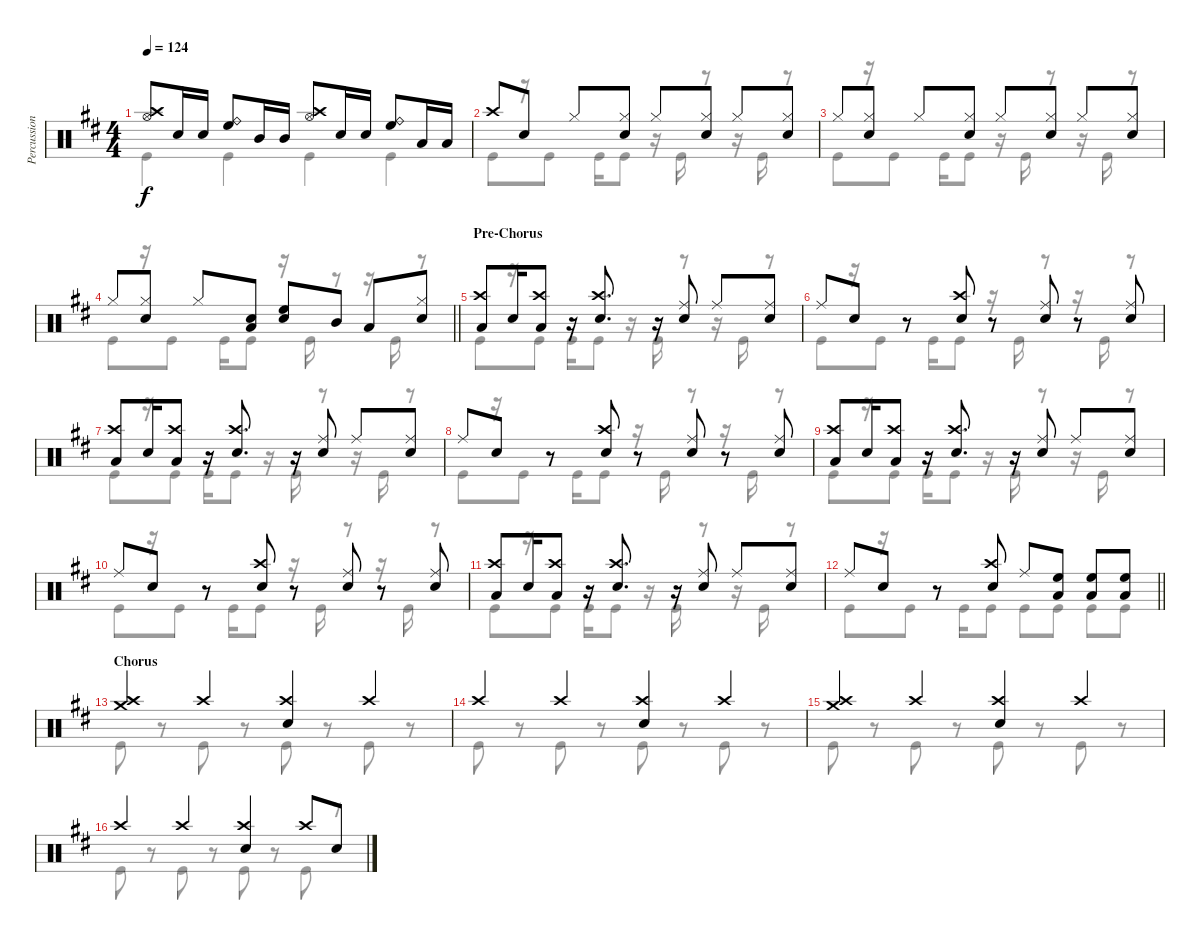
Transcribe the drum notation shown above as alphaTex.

\track ("Percussion" "Percussion") {instrument percussion}
\staff {score}
\articulation defaults
\voice
\ts (4 4)
\tempo 124
\clef neutral
\ks d
("Crash high (hit)" "Hi-Hat (open)").8{dy f} "Snare (hit) 2".16 "Snare (hit) 2".16 ("Ride (bell)" "High Floor Tom (hit)").8 "Mid Tom (hit)".16 "Mid Tom (hit)".16 ("Crash high (hit)" "Hi-Hat (open)").8 "Snare (hit) 2".16 "Snare (hit) 2".16 ("Ride (bell)" "High Floor Tom (hit)").8 "Low Tom (hit)".16 "Low Tom (hit)".16 |
"Crash high (hit)".8 "Snare (hit) 2".8 "Hi-Hat (closed)".8 ("Hi-Hat (closed)" "Snare (hit) 2").8 "Hi-Hat (closed)".8 ("Hi-Hat (closed)" "Snare (hit) 2").8 "Hi-Hat (closed)".8 ("Hi-Hat (closed)" "Snare (hit) 2").8 |
"Hi-Hat (closed)".8 ("Hi-Hat (closed)" "Snare (hit) 2").8 "Hi-Hat (closed)".8 ("Hi-Hat (closed)" "Snare (hit) 2").8 "Hi-Hat (closed)".8 ("Hi-Hat (closed)" "Snare (hit) 2").8 "Hi-Hat (closed)".8 ("Hi-Hat (closed)" "Snare (hit) 2").8 |
\barLineRight lightlight "Hi-Hat (closed)".8
("Hi-Hat (closed)" "Snare (hit) 2").8 "Hi-Hat (closed)".8 ("Low Tom (hit)" "Snare (hit) 2").8 ("High Floor Tom (hit)" "Snare (hit) 2").8 "Mid Tom (hit)".8 "Low Tom (hit)".8 ("Hi-Hat (closed)" "Snare (hit) 2").8 |
\section ("" "Pre-Chorus")
("Crash high (hit)" "Low Tom (hit)").8 "Snare (hit) 2".16 ("Crash high (hit)" "Low Tom (hit)").8 r.16 ("Crash high (hit)" "Snare (hit) 2").8{d} r.16 ("Ride (middle)" "Snare (hit) 2").8 "Ride (middle)".8 ("Ride (middle)" "Snare (hit) 2").8 |
"Ride (middle)".8 "Snare (hit) 2".8 r.8 ("Crash high (hit)" "Snare (hit) 2").8 r.8 ("Ride (middle)" "Snare (hit) 2").8 r.8 ("Ride (middle)" "Snare (hit) 2").8 |
("Crash high (hit)" "Low Tom (hit)").8 "Snare (hit) 2".16 ("Crash high (hit)" "Low Tom (hit)").8 r.16 ("Crash high (hit)" "Snare (hit) 2").8{d} r.16 ("Ride (middle)" "Snare (hit) 2").8 "Ride (middle)".8 ("Ride (middle)" "Snare (hit) 2").8 |
"Ride (middle)".8 "Snare (hit) 2".8 r.8 ("Crash high (hit)" "Snare (hit) 2").8 r.8 ("Ride (middle)" "Snare (hit) 2").8 r.8 ("Ride (middle)" "Snare (hit) 2").8 |
("Crash high (hit)" "Low Tom (hit)").8 "Snare (hit) 2".16 ("Crash high (hit)" "Low Tom (hit)").8 r.16 ("Crash high (hit)" "Snare (hit) 2").8{d} r.16 ("Ride (middle)" "Snare (hit) 2").8 "Ride (middle)".8 ("Ride (middle)" "Snare (hit) 2").8 |
"Ride (middle)".8 "Snare (hit) 2".8 r.8 ("Crash high (hit)" "Snare (hit) 2").8 r.8 ("Ride (middle)" "Snare (hit) 2").8 r.8 ("Ride (middle)" "Snare (hit) 2").8 |
("Crash high (hit)" "Low Tom (hit)").8 "Snare (hit) 2".16 ("Crash high (hit)" "Low Tom (hit)").8 r.16 ("Crash high (hit)" "Snare (hit) 2").8{d} r.16 ("Ride (middle)" "Snare (hit) 2").8 "Ride (middle)".8 ("Ride (middle)" "Snare (hit) 2").8 |
\barLineRight lightlight "Ride (middle)".8 "Snare (hit) 2".8
r.8 ("Crash high (hit)" "Snare (hit) 2").8 "Ride (middle)".8 ("High Floor Tom (hit)" "Low Tom (hit)").8 ("High Floor Tom (hit)" "Low Tom (hit)").8 ("High Floor Tom (hit)" "Low Tom (hit)").8 |
\section ("" "Chorus")
("Crash high (hit)" "Crash medium (hit)").4 "Crash high (hit)".4 ("Crash high (hit)" "Snare (hit) 2").4 "Crash high (hit)".4 |
"Crash high (hit)".4 "Crash high (hit)".4 ("Crash high (hit)" "Snare (hit) 2").4 "Crash high (hit)".4 |
("Crash high (hit)" "Crash medium (hit)").4 "Crash high (hit)".4 ("Crash high (hit)" "Snare (hit) 2").4 "Crash high (hit)".4 |
"Crash high (hit)".4 "Crash high (hit)".4 ("Crash high (hit)" "Snare (hit) 2").4 "Crash high (hit)".8 "Snare (hit) 2".8
\voice
\clef neutral
\ottava regular
\simile none
\ks d "Kick (hit)".4{dy f} "Kick (hit)".4 "Kick (hit)".4 "Kick (hit)".4
|
"Kick (hit)".8 r.16 "Kick (hit)".8 "Kick (hit)".16 "Kick (hit)".8 r.16 "Kick (hit)".16 r.8 r.16 "Kick (hit)".16 r.8 |
"Kick (hit)".8 r.16 "Kick (hit)".8 "Kick (hit)".16 "Kick (hit)".8 r.16 "Kick (hit)".16 r.8 r.16 "Kick (hit)".16 r.8 |
\barLineRight lightlight "Kick (hit)".8
r.16 "Kick (hit)".8 "Kick (hit)".16 "Kick (hit)".8 r.16 "Kick (hit)".16 r.8 r.16 "Kick (hit)".16 r.8 |
"Kick (hit)".8 r.16 "Kick (hit)".8 "Kick (hit)".16 "Kick (hit)".8 r.16 "Kick (hit)".16 r.8 r.16 "Kick (hit)".16 r.8 |
"Kick (hit)".8 r.16 "Kick (hit)".8 "Kick (hit)".16 "Kick (hit)".8 r.16 "Kick (hit)".16 r.8 r.16 "Kick (hit)".16 r.8 |
"Kick (hit)".8 r.16 "Kick (hit)".8 "Kick (hit)".16 "Kick (hit)".8 r.16 "Kick (hit)".16 r.8 r.16 "Kick (hit)".16 r.8 |
"Kick (hit)".8 r.16 "Kick (hit)".8 "Kick (hit)".16 "Kick (hit)".8 r.16 "Kick (hit)".16 r.8 r.16 "Kick (hit)".16 r.8 |
"Kick (hit)".8 r.16 "Kick (hit)".8 "Kick (hit)".16 "Kick (hit)".8 r.16 "Kick (hit)".16 r.8 r.16 "Kick (hit)".16 r.8 |
"Kick (hit)".8 r.16 "Kick (hit)".8 "Kick (hit)".16 "Kick (hit)".8 r.16 "Kick (hit)".16 r.8 r.16 "Kick (hit)".16 r.8 |
"Kick (hit)".8 r.16 "Kick (hit)".8 "Kick (hit)".16 "Kick (hit)".8 r.16 "Kick (hit)".16 r.8 r.16 "Kick (hit)".16 r.8 |
\barLineRight lightlight "Kick (hit)".8
r.16 "Kick (hit)".8 "Kick (hit)".16 "Kick (hit)".8 "Kick (hit)".8 "Kick (hit)".8 "Kick (hit)".8 "Kick (hit)".8 |
"Kick (hit)".8 r.8 "Kick (hit)".8 r.8 "Kick (hit)".8 r.8 "Kick (hit)".8 r.8 |
"Kick (hit)".8 r.8 "Kick (hit)".8 r.8 "Kick (hit)".8 r.8 "Kick (hit)".8 r.8 |
"Kick (hit)".8 r.8 "Kick (hit)".8 r.8 "Kick (hit)".8 r.8 "Kick (hit)".8 r.8 |
"Kick (hit)".8 r.8 "Kick (hit)".8 r.8 "Kick (hit)".8 r.8 "Kick (hit)".8 r.8
